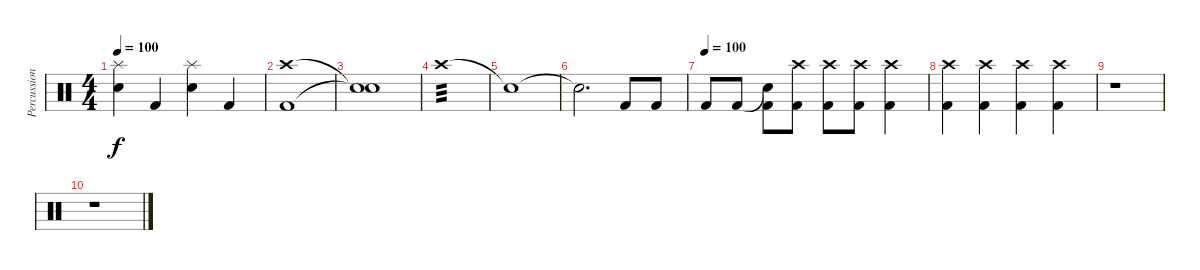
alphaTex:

\track ("Percussions" "Percussion") {instrument percussion}
\staff {score}
\articulation defaults
\ts (4 4)
\tempo 100
\clef neutral
\ks c
("Splash (hit)" "Electric Snare (hit)").4{dy f} "Kick (hit) 2".4 ("Splash (hit)" "Electric Snare (hit)").4 "Kick (hit) 2".4 |
("Crash high (hit)" "Kick (hit) 2").1 |
("Snare (hit)"{t} "Snare (hit)"{t}).1 |
"Crash high (hit)".1{tp 3} |
"Snare (hit)"{t}.1 |
"Snare (hit)"{t}.2{d} "Kick (hit) 2".8 "Kick (hit) 2".8 |
\tempo (100)
"Kick (hit) 2".8 "Kick (hit) 2".8 ("Snare (hit)"{t} "Kick (hit) 2").8 ("Crash high (hit)" "Kick (hit) 2").8 ("Crash high (hit)" "Kick (hit) 2").8 ("Crash high (hit)" "Kick (hit) 2").8 ("Crash high (hit)" "Kick (hit) 2").4 |
("Crash high (hit)" "Kick (hit) 2").4 ("Crash high (hit)" "Kick (hit) 2").4 ("Crash high (hit)" "Kick (hit) 2").4 ("Crash high (hit)" "Kick (hit) 2").4 |
r.1 |
r.1
